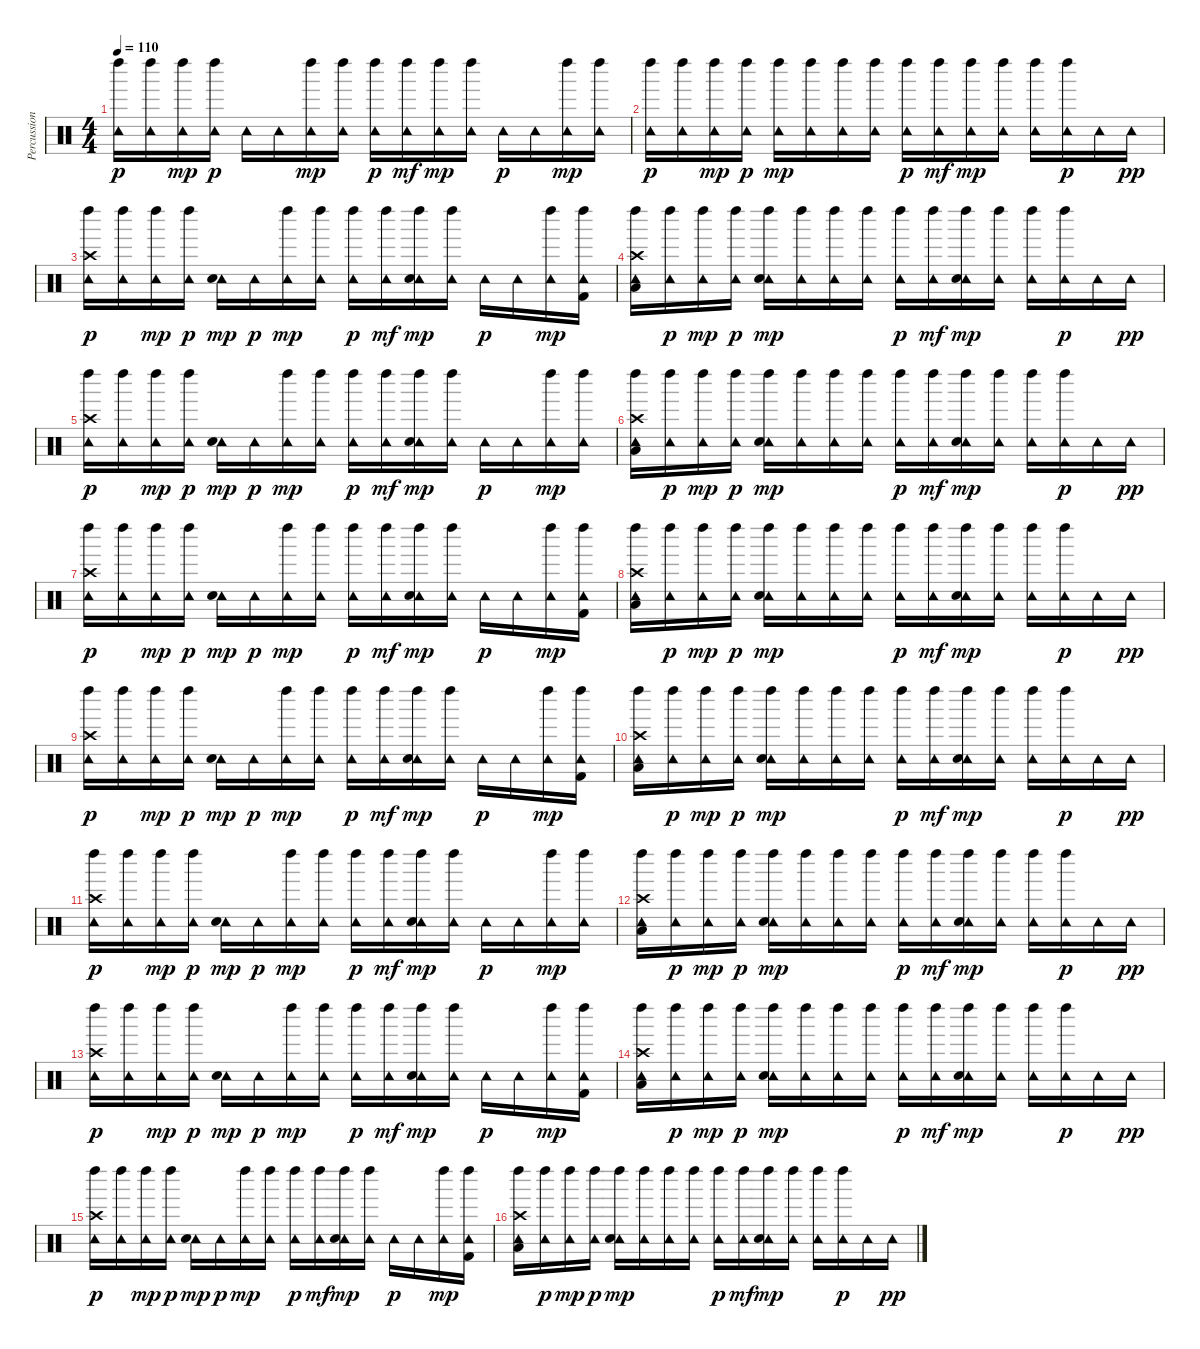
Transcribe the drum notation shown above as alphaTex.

\track ("Percussion" "Percussion") {instrument percussion}
\staff {score}
\articulation defaults
\ts (4 4)
\tempo 110
\clef neutral
\ks c
("Tambourine (hit)" "Left Maraca (hit)").16{dy p} ("Left Maraca (hit)" "Tambourine (hit)").16 ("Tambourine (hit)" "Left Maraca (hit)").16{dy mp} ("Left Maraca (hit)" "Tambourine (hit)").16{dy p} "Tambourine (hit)".16 "Tambourine (hit)".16 ("Tambourine (hit)" "Left Maraca (hit)").16{dy mp} ("Tambourine (hit)" "Left Maraca (hit)").16 ("Tambourine (hit)" "Left Maraca (hit)").16{dy p} ("Tambourine (hit)" "Left Maraca (hit)").16{dy mf} ("Tambourine (hit)" "Left Maraca (hit)").16{dy mp} ("Tambourine (hit)" "Left Maraca (hit)").16 "Tambourine (hit)".16{dy p} "Tambourine (hit)".16 ("Tambourine (hit)" "Left Maraca (hit)").16{dy mp} ("Tambourine (hit)" "Left Maraca (hit)").16 |
("Tambourine (hit)" "Left Maraca (hit)").16{dy p} ("Left Maraca (hit)" "Tambourine (hit)").16 ("Tambourine (hit)" "Left Maraca (hit)").16{dy mp} ("Left Maraca (hit)" "Tambourine (hit)").16{dy p} ("Tambourine (hit)" "Left Maraca (hit)").16{dy mp} ("Tambourine (hit)" "Left Maraca (hit)").16 ("Tambourine (hit)" "Left Maraca (hit)").16 ("Tambourine (hit)" "Left Maraca (hit)").16 ("Tambourine (hit)" "Left Maraca (hit)").16{dy p} ("Tambourine (hit)" "Left Maraca (hit)").16{dy mf} ("Tambourine (hit)" "Left Maraca (hit)").16{dy mp} ("Tambourine (hit)" "Left Maraca (hit)").16 ("Tambourine (hit)" "Left Maraca (hit)").16 ("Tambourine (hit)" "Left Maraca (hit)").16{dy p} "Tambourine (hit)".16 "Tambourine (hit)".16{dy pp} |
("Crash high (hit)" "Tambourine (hit)" "Left Maraca (hit)").16{dy p} ("Left Maraca (hit)" "Tambourine (hit)").16 ("Tambourine (hit)" "Left Maraca (hit)").16{dy mp} ("Left Maraca (hit)" "Tambourine (hit)").16{dy p} ("Tambourine (hit)" "Snare (hit) 2").16{dy mp} "Tambourine (hit)".16{dy p} ("Tambourine (hit)" "Left Maraca (hit)").16{dy mp} ("Tambourine (hit)" "Left Maraca (hit)").16 ("Tambourine (hit)" "Left Maraca (hit)").16{dy p} ("Tambourine (hit)" "Left Maraca (hit)").16{dy mf} ("Tambourine (hit)" "Left Maraca (hit)" "Electric Snare (hit)").16{dy mp} ("Tambourine (hit)" "Left Maraca (hit)").16 "Tambourine (hit)".16{dy p} "Tambourine (hit)".16 ("Tambourine (hit)" "Left Maraca (hit)").16{dy mp} ("Tambourine (hit)" "Left Maraca (hit)" "Kick (hit) 2").16 |
("Crash high (hit)" "Tambourine (hit)" "Left Maraca (hit)" "Low Floor Tom (hit)").16 ("Left Maraca (hit)" "Tambourine (hit)").16{dy p} ("Tambourine (hit)" "Left Maraca (hit)").16{dy mp} ("Left Maraca (hit)" "Tambourine (hit)").16{dy p} ("Tambourine (hit)" "Left Maraca (hit)" "Snare (hit) 2").16{dy mp} ("Tambourine (hit)" "Left Maraca (hit)").16 ("Tambourine (hit)" "Left Maraca (hit)").16 ("Tambourine (hit)" "Left Maraca (hit)").16 ("Tambourine (hit)" "Left Maraca (hit)").16{dy p} ("Tambourine (hit)" "Left Maraca (hit)").16{dy mf} ("Tambourine (hit)" "Left Maraca (hit)" "Electric Snare (hit)").16{dy mp} ("Tambourine (hit)" "Left Maraca (hit)").16 ("Tambourine (hit)" "Left Maraca (hit)").16 ("Tambourine (hit)" "Left Maraca (hit)").16{dy p} "Tambourine (hit)".16 "Tambourine (hit)".16{dy pp} |
("Crash high (hit)" "Tambourine (hit)" "Left Maraca (hit)").16{dy p} ("Left Maraca (hit)" "Tambourine (hit)").16 ("Tambourine (hit)" "Left Maraca (hit)").16{dy mp} ("Left Maraca (hit)" "Tambourine (hit)").16{dy p} ("Tambourine (hit)" "Snare (hit) 2").16{dy mp} "Tambourine (hit)".16{dy p} ("Tambourine (hit)" "Left Maraca (hit)").16{dy mp} ("Tambourine (hit)" "Left Maraca (hit)").16 ("Tambourine (hit)" "Left Maraca (hit)").16{dy p} ("Tambourine (hit)" "Left Maraca (hit)").16{dy mf} ("Tambourine (hit)" "Left Maraca (hit)" "Electric Snare (hit)").16{dy mp} ("Tambourine (hit)" "Left Maraca (hit)").16 "Tambourine (hit)".16{dy p} "Tambourine (hit)".16 ("Tambourine (hit)" "Left Maraca (hit)").16{dy mp} ("Tambourine (hit)" "Left Maraca (hit)").16 |
("Crash high (hit)" "Tambourine (hit)" "Left Maraca (hit)" "Low Floor Tom (hit)").16 ("Left Maraca (hit)" "Tambourine (hit)").16{dy p} ("Tambourine (hit)" "Left Maraca (hit)").16{dy mp} ("Left Maraca (hit)" "Tambourine (hit)").16{dy p} ("Tambourine (hit)" "Left Maraca (hit)" "Snare (hit) 2").16{dy mp} ("Tambourine (hit)" "Left Maraca (hit)").16 ("Tambourine (hit)" "Left Maraca (hit)").16 ("Tambourine (hit)" "Left Maraca (hit)").16 ("Tambourine (hit)" "Left Maraca (hit)").16{dy p} ("Tambourine (hit)" "Left Maraca (hit)").16{dy mf} ("Tambourine (hit)" "Left Maraca (hit)" "Electric Snare (hit)").16{dy mp} ("Tambourine (hit)" "Left Maraca (hit)").16 ("Tambourine (hit)" "Left Maraca (hit)").16 ("Tambourine (hit)" "Left Maraca (hit)").16{dy p} "Tambourine (hit)".16 "Tambourine (hit)".16{dy pp} |
("Crash high (hit)" "Tambourine (hit)" "Left Maraca (hit)").16{dy p} ("Left Maraca (hit)" "Tambourine (hit)").16 ("Tambourine (hit)" "Left Maraca (hit)").16{dy mp} ("Left Maraca (hit)" "Tambourine (hit)").16{dy p} ("Tambourine (hit)" "Snare (hit) 2").16{dy mp} "Tambourine (hit)".16{dy p} ("Tambourine (hit)" "Left Maraca (hit)").16{dy mp} ("Tambourine (hit)" "Left Maraca (hit)").16 ("Tambourine (hit)" "Left Maraca (hit)").16{dy p} ("Tambourine (hit)" "Left Maraca (hit)").16{dy mf} ("Tambourine (hit)" "Left Maraca (hit)" "Electric Snare (hit)").16{dy mp} ("Tambourine (hit)" "Left Maraca (hit)").16 "Tambourine (hit)".16{dy p} "Tambourine (hit)".16 ("Tambourine (hit)" "Left Maraca (hit)").16{dy mp} ("Tambourine (hit)" "Left Maraca (hit)" "Kick (hit) 2").16 |
("Crash high (hit)" "Tambourine (hit)" "Left Maraca (hit)" "Low Floor Tom (hit)").16 ("Left Maraca (hit)" "Tambourine (hit)").16{dy p} ("Tambourine (hit)" "Left Maraca (hit)").16{dy mp} ("Left Maraca (hit)" "Tambourine (hit)").16{dy p} ("Tambourine (hit)" "Left Maraca (hit)" "Snare (hit) 2").16{dy mp} ("Tambourine (hit)" "Left Maraca (hit)").16 ("Tambourine (hit)" "Left Maraca (hit)").16 ("Tambourine (hit)" "Left Maraca (hit)").16 ("Tambourine (hit)" "Left Maraca (hit)").16{dy p} ("Tambourine (hit)" "Left Maraca (hit)").16{dy mf} ("Tambourine (hit)" "Left Maraca (hit)" "Electric Snare (hit)").16{dy mp} ("Tambourine (hit)" "Left Maraca (hit)").16 ("Tambourine (hit)" "Left Maraca (hit)").16 ("Tambourine (hit)" "Left Maraca (hit)").16{dy p} "Tambourine (hit)".16 "Tambourine (hit)".16{dy pp} |
("Crash high (hit)" "Tambourine (hit)" "Left Maraca (hit)").16{dy p} ("Left Maraca (hit)" "Tambourine (hit)").16 ("Tambourine (hit)" "Left Maraca (hit)").16{dy mp} ("Left Maraca (hit)" "Tambourine (hit)").16{dy p} ("Tambourine (hit)" "Snare (hit) 2").16{dy mp} "Tambourine (hit)".16{dy p} ("Tambourine (hit)" "Left Maraca (hit)").16{dy mp} ("Tambourine (hit)" "Left Maraca (hit)").16 ("Tambourine (hit)" "Left Maraca (hit)").16{dy p} ("Tambourine (hit)" "Left Maraca (hit)").16{dy mf} ("Tambourine (hit)" "Left Maraca (hit)" "Electric Snare (hit)").16{dy mp} ("Tambourine (hit)" "Left Maraca (hit)").16 "Tambourine (hit)".16{dy p} "Tambourine (hit)".16 ("Tambourine (hit)" "Left Maraca (hit)").16{dy mp} ("Tambourine (hit)" "Left Maraca (hit)" "Kick (hit) 2").16 |
("Crash high (hit)" "Tambourine (hit)" "Left Maraca (hit)" "Low Floor Tom (hit)").16 ("Left Maraca (hit)" "Tambourine (hit)").16{dy p} ("Tambourine (hit)" "Left Maraca (hit)").16{dy mp} ("Left Maraca (hit)" "Tambourine (hit)").16{dy p} ("Tambourine (hit)" "Left Maraca (hit)" "Snare (hit) 2").16{dy mp} ("Tambourine (hit)" "Left Maraca (hit)").16 ("Tambourine (hit)" "Left Maraca (hit)").16 ("Tambourine (hit)" "Left Maraca (hit)").16 ("Tambourine (hit)" "Left Maraca (hit)").16{dy p} ("Tambourine (hit)" "Left Maraca (hit)").16{dy mf} ("Tambourine (hit)" "Left Maraca (hit)" "Electric Snare (hit)").16{dy mp} ("Tambourine (hit)" "Left Maraca (hit)").16 ("Tambourine (hit)" "Left Maraca (hit)").16 ("Tambourine (hit)" "Left Maraca (hit)").16{dy p} "Tambourine (hit)".16 "Tambourine (hit)".16{dy pp} |
("Crash high (hit)" "Tambourine (hit)" "Left Maraca (hit)").16{dy p} ("Left Maraca (hit)" "Tambourine (hit)").16 ("Tambourine (hit)" "Left Maraca (hit)").16{dy mp} ("Left Maraca (hit)" "Tambourine (hit)").16{dy p} ("Tambourine (hit)" "Snare (hit) 2").16{dy mp} "Tambourine (hit)".16{dy p} ("Tambourine (hit)" "Left Maraca (hit)").16{dy mp} ("Tambourine (hit)" "Left Maraca (hit)").16 ("Tambourine (hit)" "Left Maraca (hit)").16{dy p} ("Tambourine (hit)" "Left Maraca (hit)").16{dy mf} ("Tambourine (hit)" "Left Maraca (hit)" "Electric Snare (hit)").16{dy mp} ("Tambourine (hit)" "Left Maraca (hit)").16 "Tambourine (hit)".16{dy p} "Tambourine (hit)".16 ("Tambourine (hit)" "Left Maraca (hit)").16{dy mp} ("Tambourine (hit)" "Left Maraca (hit)").16 |
("Crash high (hit)" "Tambourine (hit)" "Left Maraca (hit)" "Low Floor Tom (hit)").16 ("Left Maraca (hit)" "Tambourine (hit)").16{dy p} ("Tambourine (hit)" "Left Maraca (hit)").16{dy mp} ("Left Maraca (hit)" "Tambourine (hit)").16{dy p} ("Tambourine (hit)" "Left Maraca (hit)" "Snare (hit) 2").16{dy mp} ("Tambourine (hit)" "Left Maraca (hit)").16 ("Tambourine (hit)" "Left Maraca (hit)").16 ("Tambourine (hit)" "Left Maraca (hit)").16 ("Tambourine (hit)" "Left Maraca (hit)").16{dy p} ("Tambourine (hit)" "Left Maraca (hit)").16{dy mf} ("Tambourine (hit)" "Left Maraca (hit)" "Electric Snare (hit)").16{dy mp} ("Tambourine (hit)" "Left Maraca (hit)").16 ("Tambourine (hit)" "Left Maraca (hit)").16 ("Tambourine (hit)" "Left Maraca (hit)").16{dy p} "Tambourine (hit)".16 "Tambourine (hit)".16{dy pp} |
("Crash high (hit)" "Tambourine (hit)" "Left Maraca (hit)").16{dy p} ("Left Maraca (hit)" "Tambourine (hit)").16 ("Tambourine (hit)" "Left Maraca (hit)").16{dy mp} ("Left Maraca (hit)" "Tambourine (hit)").16{dy p} ("Tambourine (hit)" "Snare (hit) 2").16{dy mp} "Tambourine (hit)".16{dy p} ("Tambourine (hit)" "Left Maraca (hit)").16{dy mp} ("Tambourine (hit)" "Left Maraca (hit)").16 ("Tambourine (hit)" "Left Maraca (hit)").16{dy p} ("Tambourine (hit)" "Left Maraca (hit)").16{dy mf} ("Tambourine (hit)" "Left Maraca (hit)" "Electric Snare (hit)").16{dy mp} ("Tambourine (hit)" "Left Maraca (hit)").16 "Tambourine (hit)".16{dy p} "Tambourine (hit)".16 ("Tambourine (hit)" "Left Maraca (hit)").16{dy mp} ("Tambourine (hit)" "Left Maraca (hit)" "Kick (hit) 2").16 |
("Crash high (hit)" "Tambourine (hit)" "Left Maraca (hit)" "Low Floor Tom (hit)").16 ("Left Maraca (hit)" "Tambourine (hit)").16{dy p} ("Tambourine (hit)" "Left Maraca (hit)").16{dy mp} ("Left Maraca (hit)" "Tambourine (hit)").16{dy p} ("Tambourine (hit)" "Left Maraca (hit)" "Snare (hit) 2").16{dy mp} ("Tambourine (hit)" "Left Maraca (hit)").16 ("Tambourine (hit)" "Left Maraca (hit)").16 ("Tambourine (hit)" "Left Maraca (hit)").16 ("Tambourine (hit)" "Left Maraca (hit)").16{dy p} ("Tambourine (hit)" "Left Maraca (hit)").16{dy mf} ("Tambourine (hit)" "Left Maraca (hit)" "Electric Snare (hit)").16{dy mp} ("Tambourine (hit)" "Left Maraca (hit)").16 ("Tambourine (hit)" "Left Maraca (hit)").16 ("Tambourine (hit)" "Left Maraca (hit)").16{dy p} "Tambourine (hit)".16 "Tambourine (hit)".16{dy pp} |
("Crash high (hit)" "Tambourine (hit)" "Left Maraca (hit)").16{dy p} ("Left Maraca (hit)" "Tambourine (hit)").16 ("Tambourine (hit)" "Left Maraca (hit)").16{dy mp} ("Left Maraca (hit)" "Tambourine (hit)").16{dy p} ("Tambourine (hit)" "Snare (hit) 2").16{dy mp} "Tambourine (hit)".16{dy p} ("Tambourine (hit)" "Left Maraca (hit)").16{dy mp} ("Tambourine (hit)" "Left Maraca (hit)").16 ("Tambourine (hit)" "Left Maraca (hit)").16{dy p} ("Tambourine (hit)" "Left Maraca (hit)").16{dy mf} ("Tambourine (hit)" "Left Maraca (hit)" "Electric Snare (hit)").16{dy mp} ("Tambourine (hit)" "Left Maraca (hit)").16 "Tambourine (hit)".16{dy p} "Tambourine (hit)".16 ("Tambourine (hit)" "Left Maraca (hit)").16{dy mp} ("Tambourine (hit)" "Left Maraca (hit)" "Kick (hit) 2").16 |
("Crash high (hit)" "Tambourine (hit)" "Left Maraca (hit)" "Low Floor Tom (hit)").16 ("Left Maraca (hit)" "Tambourine (hit)").16{dy p} ("Tambourine (hit)" "Left Maraca (hit)").16{dy mp} ("Left Maraca (hit)" "Tambourine (hit)").16{dy p} ("Tambourine (hit)" "Left Maraca (hit)" "Snare (hit) 2").16{dy mp} ("Tambourine (hit)" "Left Maraca (hit)").16 ("Tambourine (hit)" "Left Maraca (hit)").16 ("Tambourine (hit)" "Left Maraca (hit)").16 ("Tambourine (hit)" "Left Maraca (hit)").16{dy p} ("Tambourine (hit)" "Left Maraca (hit)").16{dy mf} ("Tambourine (hit)" "Left Maraca (hit)" "Electric Snare (hit)").16{dy mp} ("Tambourine (hit)" "Left Maraca (hit)").16 ("Tambourine (hit)" "Left Maraca (hit)").16 ("Tambourine (hit)" "Left Maraca (hit)").16{dy p} "Tambourine (hit)".16 "Tambourine (hit)".16{dy pp}
